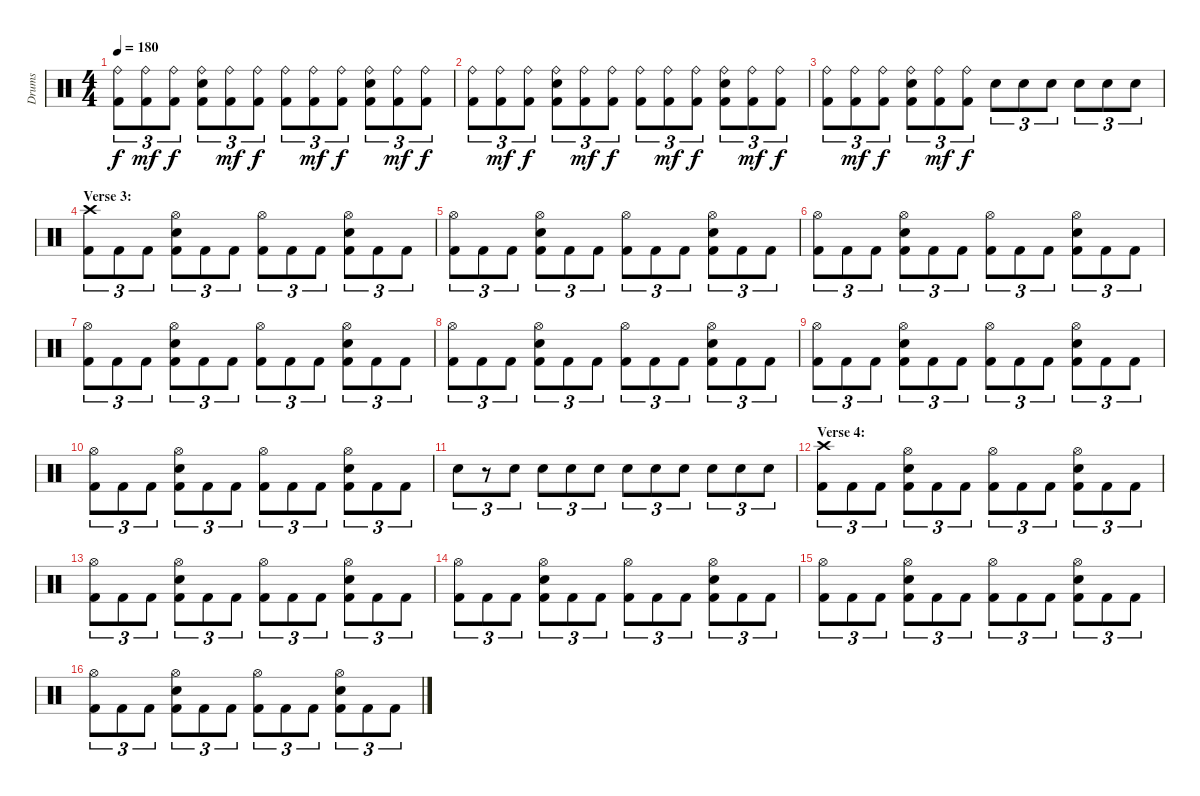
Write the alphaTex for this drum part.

\track ("Drums" "Drums") {instrument percussion}
\staff {score}
\articulation defaults
\ts (4 4)
\tempo 180
\clef neutral
\ks c
("Ride (bell)" "Kick (hit) 2").8{tu (3 2) dy f} ("Ride (bell)" "Kick (hit) 2").8{tu (3 2) dy mf} ("Ride (bell)" "Kick (hit) 2").8{tu (3 2) dy f} ("Ride (bell)" "Electric Snare (hit)" "Kick (hit) 2").8{tu (3 2)} ("Ride (bell)" "Kick (hit) 2").8{tu (3 2) dy mf} ("Ride (bell)" "Kick (hit) 2").8{tu (3 2) dy f} ("Ride (bell)" "Kick (hit) 2").8{tu (3 2)} ("Ride (bell)" "Kick (hit) 2").8{tu (3 2) dy mf} ("Ride (bell)" "Kick (hit) 2").8{tu (3 2) dy f} ("Ride (bell)" "Electric Snare (hit)" "Kick (hit) 2").8{tu (3 2)} ("Ride (bell)" "Kick (hit) 2").8{tu (3 2) dy mf} ("Ride (bell)" "Kick (hit) 2").8{tu (3 2) dy f} |
("Ride (bell)" "Kick (hit) 2").8{tu (3 2)} ("Ride (bell)" "Kick (hit) 2").8{tu (3 2) dy mf} ("Ride (bell)" "Kick (hit) 2").8{tu (3 2) dy f} ("Ride (bell)" "Electric Snare (hit)" "Kick (hit) 2").8{tu (3 2)} ("Ride (bell)" "Kick (hit) 2").8{tu (3 2) dy mf} ("Ride (bell)" "Kick (hit) 2").8{tu (3 2) dy f} ("Ride (bell)" "Kick (hit) 2").8{tu (3 2)} ("Ride (bell)" "Kick (hit) 2").8{tu (3 2) dy mf} ("Ride (bell)" "Kick (hit) 2").8{tu (3 2) dy f} ("Ride (bell)" "Electric Snare (hit)" "Kick (hit) 2").8{tu (3 2)} ("Ride (bell)" "Kick (hit) 2").8{tu (3 2) dy mf} ("Ride (bell)" "Kick (hit) 2").8{tu (3 2) dy f} |
("Ride (bell)" "Kick (hit) 2").8{tu (3 2)} ("Ride (bell)" "Kick (hit) 2").8{tu (3 2) dy mf} ("Ride (bell)" "Kick (hit) 2").8{tu (3 2) dy f} ("Ride (bell)" "Electric Snare (hit)" "Kick (hit) 2").8{tu (3 2)} ("Ride (bell)" "Kick (hit) 2").8{tu (3 2) dy mf} ("Ride (bell)" "Kick (hit) 2").8{tu (3 2) dy f} "Electric Snare (hit)".8{tu (3 2)} "Electric Snare (hit)".8{tu (3 2)} "Electric Snare (hit)".8{tu (3 2)} "Electric Snare (hit)".8{tu (3 2)} "Electric Snare (hit)".8{tu (3 2)} "Electric Snare (hit)".8{tu (3 2)} |
\section ("" "Verse 3:")
("Crash high (hit)" "Kick (hit) 2").8{tu (3 2)} "Kick (hit) 2".8{tu (3 2)} "Kick (hit) 2".8{tu (3 2)} ("Hi-Hat (open)" "Electric Snare (hit)" "Kick (hit) 2").8{tu (3 2)} "Kick (hit) 2".8{tu (3 2)} "Kick (hit) 2".8{tu (3 2)} ("Hi-Hat (open)" "Kick (hit) 2").8{tu (3 2)} "Kick (hit) 2".8{tu (3 2)} "Kick (hit) 2".8{tu (3 2)} ("Hi-Hat (open)" "Electric Snare (hit)" "Kick (hit) 2").8{tu (3 2)} "Kick (hit) 2".8{tu (3 2)} "Kick (hit) 2".8{tu (3 2)} |
("Hi-Hat (open)" "Kick (hit) 2").8{tu (3 2)} "Kick (hit) 2".8{tu (3 2)} "Kick (hit) 2".8{tu (3 2)} ("Hi-Hat (open)" "Electric Snare (hit)" "Kick (hit) 2").8{tu (3 2)} "Kick (hit) 2".8{tu (3 2)} "Kick (hit) 2".8{tu (3 2)} ("Hi-Hat (open)" "Kick (hit) 2").8{tu (3 2)} "Kick (hit) 2".8{tu (3 2)} "Kick (hit) 2".8{tu (3 2)} ("Hi-Hat (open)" "Electric Snare (hit)" "Kick (hit) 2").8{tu (3 2)} "Kick (hit) 2".8{tu (3 2)} "Kick (hit) 2".8{tu (3 2)} |
("Hi-Hat (open)" "Kick (hit) 2").8{tu (3 2)} "Kick (hit) 2".8{tu (3 2)} "Kick (hit) 2".8{tu (3 2)} ("Hi-Hat (open)" "Electric Snare (hit)" "Kick (hit) 2").8{tu (3 2)} "Kick (hit) 2".8{tu (3 2)} "Kick (hit) 2".8{tu (3 2)} ("Hi-Hat (open)" "Kick (hit) 2").8{tu (3 2)} "Kick (hit) 2".8{tu (3 2)} "Kick (hit) 2".8{tu (3 2)} ("Hi-Hat (open)" "Electric Snare (hit)" "Kick (hit) 2").8{tu (3 2)} "Kick (hit) 2".8{tu (3 2)} "Kick (hit) 2".8{tu (3 2)} |
("Hi-Hat (open)" "Kick (hit) 2").8{tu (3 2)} "Kick (hit) 2".8{tu (3 2)} "Kick (hit) 2".8{tu (3 2)} ("Hi-Hat (open)" "Electric Snare (hit)" "Kick (hit) 2").8{tu (3 2)} "Kick (hit) 2".8{tu (3 2)} "Kick (hit) 2".8{tu (3 2)} ("Hi-Hat (open)" "Kick (hit) 2").8{tu (3 2)} "Kick (hit) 2".8{tu (3 2)} "Kick (hit) 2".8{tu (3 2)} ("Hi-Hat (open)" "Electric Snare (hit)" "Kick (hit) 2").8{tu (3 2)} "Kick (hit) 2".8{tu (3 2)} "Kick (hit) 2".8{tu (3 2)} |
("Hi-Hat (open)" "Kick (hit) 2").8{tu (3 2)} "Kick (hit) 2".8{tu (3 2)} "Kick (hit) 2".8{tu (3 2)} ("Hi-Hat (open)" "Electric Snare (hit)" "Kick (hit) 2").8{tu (3 2)} "Kick (hit) 2".8{tu (3 2)} "Kick (hit) 2".8{tu (3 2)} ("Hi-Hat (open)" "Kick (hit) 2").8{tu (3 2)} "Kick (hit) 2".8{tu (3 2)} "Kick (hit) 2".8{tu (3 2)} ("Hi-Hat (open)" "Electric Snare (hit)" "Kick (hit) 2").8{tu (3 2)} "Kick (hit) 2".8{tu (3 2)} "Kick (hit) 2".8{tu (3 2)} |
("Hi-Hat (open)" "Kick (hit) 2").8{tu (3 2)} "Kick (hit) 2".8{tu (3 2)} "Kick (hit) 2".8{tu (3 2)} ("Hi-Hat (open)" "Electric Snare (hit)" "Kick (hit) 2").8{tu (3 2)} "Kick (hit) 2".8{tu (3 2)} "Kick (hit) 2".8{tu (3 2)} ("Hi-Hat (open)" "Kick (hit) 2").8{tu (3 2)} "Kick (hit) 2".8{tu (3 2)} "Kick (hit) 2".8{tu (3 2)} ("Hi-Hat (open)" "Electric Snare (hit)" "Kick (hit) 2").8{tu (3 2)} "Kick (hit) 2".8{tu (3 2)} "Kick (hit) 2".8{tu (3 2)} |
("Hi-Hat (open)" "Kick (hit) 2").8{tu (3 2)} "Kick (hit) 2".8{tu (3 2)} "Kick (hit) 2".8{tu (3 2)} ("Hi-Hat (open)" "Electric Snare (hit)" "Kick (hit) 2").8{tu (3 2)} "Kick (hit) 2".8{tu (3 2)} "Kick (hit) 2".8{tu (3 2)} ("Hi-Hat (open)" "Kick (hit) 2").8{tu (3 2)} "Kick (hit) 2".8{tu (3 2)} "Kick (hit) 2".8{tu (3 2)} ("Hi-Hat (open)" "Electric Snare (hit)" "Kick (hit) 2").8{tu (3 2)} "Kick (hit) 2".8{tu (3 2)} "Kick (hit) 2".8{tu (3 2)} |
"Electric Snare (hit)".8{tu (3 2)} r.8{tu (3 2)} "Electric Snare (hit)".8{tu (3 2)} "Electric Snare (hit)".8{tu (3 2)} "Electric Snare (hit)".8{tu (3 2)} "Electric Snare (hit)".8{tu (3 2)} "Electric Snare (hit)".8{tu (3 2)} "Electric Snare (hit)".8{tu (3 2)} "Electric Snare (hit)".8{tu (3 2)} "Electric Snare (hit)".8{tu (3 2)} "Electric Snare (hit)".8{tu (3 2)} "Electric Snare (hit)".8{tu (3 2)} |
\section ("" "Verse 4:")
("Crash high (hit)" "Kick (hit) 2").8{tu (3 2)} "Kick (hit) 2".8{tu (3 2)} "Kick (hit) 2".8{tu (3 2)} ("Hi-Hat (open)" "Electric Snare (hit)" "Kick (hit) 2").8{tu (3 2)} "Kick (hit) 2".8{tu (3 2)} "Kick (hit) 2".8{tu (3 2)} ("Hi-Hat (open)" "Kick (hit) 2").8{tu (3 2)} "Kick (hit) 2".8{tu (3 2)} "Kick (hit) 2".8{tu (3 2)} ("Hi-Hat (open)" "Electric Snare (hit)" "Kick (hit) 2").8{tu (3 2)} "Kick (hit) 2".8{tu (3 2)} "Kick (hit) 2".8{tu (3 2)} |
("Hi-Hat (open)" "Kick (hit) 2").8{tu (3 2)} "Kick (hit) 2".8{tu (3 2)} "Kick (hit) 2".8{tu (3 2)} ("Hi-Hat (open)" "Electric Snare (hit)" "Kick (hit) 2").8{tu (3 2)} "Kick (hit) 2".8{tu (3 2)} "Kick (hit) 2".8{tu (3 2)} ("Hi-Hat (open)" "Kick (hit) 2").8{tu (3 2)} "Kick (hit) 2".8{tu (3 2)} "Kick (hit) 2".8{tu (3 2)} ("Hi-Hat (open)" "Electric Snare (hit)" "Kick (hit) 2").8{tu (3 2)} "Kick (hit) 2".8{tu (3 2)} "Kick (hit) 2".8{tu (3 2)} |
("Hi-Hat (open)" "Kick (hit) 2").8{tu (3 2)} "Kick (hit) 2".8{tu (3 2)} "Kick (hit) 2".8{tu (3 2)} ("Hi-Hat (open)" "Electric Snare (hit)" "Kick (hit) 2").8{tu (3 2)} "Kick (hit) 2".8{tu (3 2)} "Kick (hit) 2".8{tu (3 2)} ("Hi-Hat (open)" "Kick (hit) 2").8{tu (3 2)} "Kick (hit) 2".8{tu (3 2)} "Kick (hit) 2".8{tu (3 2)} ("Hi-Hat (open)" "Electric Snare (hit)" "Kick (hit) 2").8{tu (3 2)} "Kick (hit) 2".8{tu (3 2)} "Kick (hit) 2".8{tu (3 2)} |
("Hi-Hat (open)" "Kick (hit) 2").8{tu (3 2)} "Kick (hit) 2".8{tu (3 2)} "Kick (hit) 2".8{tu (3 2)} ("Hi-Hat (open)" "Electric Snare (hit)" "Kick (hit) 2").8{tu (3 2)} "Kick (hit) 2".8{tu (3 2)} "Kick (hit) 2".8{tu (3 2)} ("Hi-Hat (open)" "Kick (hit) 2").8{tu (3 2)} "Kick (hit) 2".8{tu (3 2)} "Kick (hit) 2".8{tu (3 2)} ("Hi-Hat (open)" "Electric Snare (hit)" "Kick (hit) 2").8{tu (3 2)} "Kick (hit) 2".8{tu (3 2)} "Kick (hit) 2".8{tu (3 2)} |
("Hi-Hat (open)" "Kick (hit) 2").8{tu (3 2)} "Kick (hit) 2".8{tu (3 2)} "Kick (hit) 2".8{tu (3 2)} ("Hi-Hat (open)" "Electric Snare (hit)" "Kick (hit) 2").8{tu (3 2)} "Kick (hit) 2".8{tu (3 2)} "Kick (hit) 2".8{tu (3 2)} ("Hi-Hat (open)" "Kick (hit) 2").8{tu (3 2)} "Kick (hit) 2".8{tu (3 2)} "Kick (hit) 2".8{tu (3 2)} ("Hi-Hat (open)" "Electric Snare (hit)" "Kick (hit) 2").8{tu (3 2)} "Kick (hit) 2".8{tu (3 2)} "Kick (hit) 2".8{tu (3 2)}
